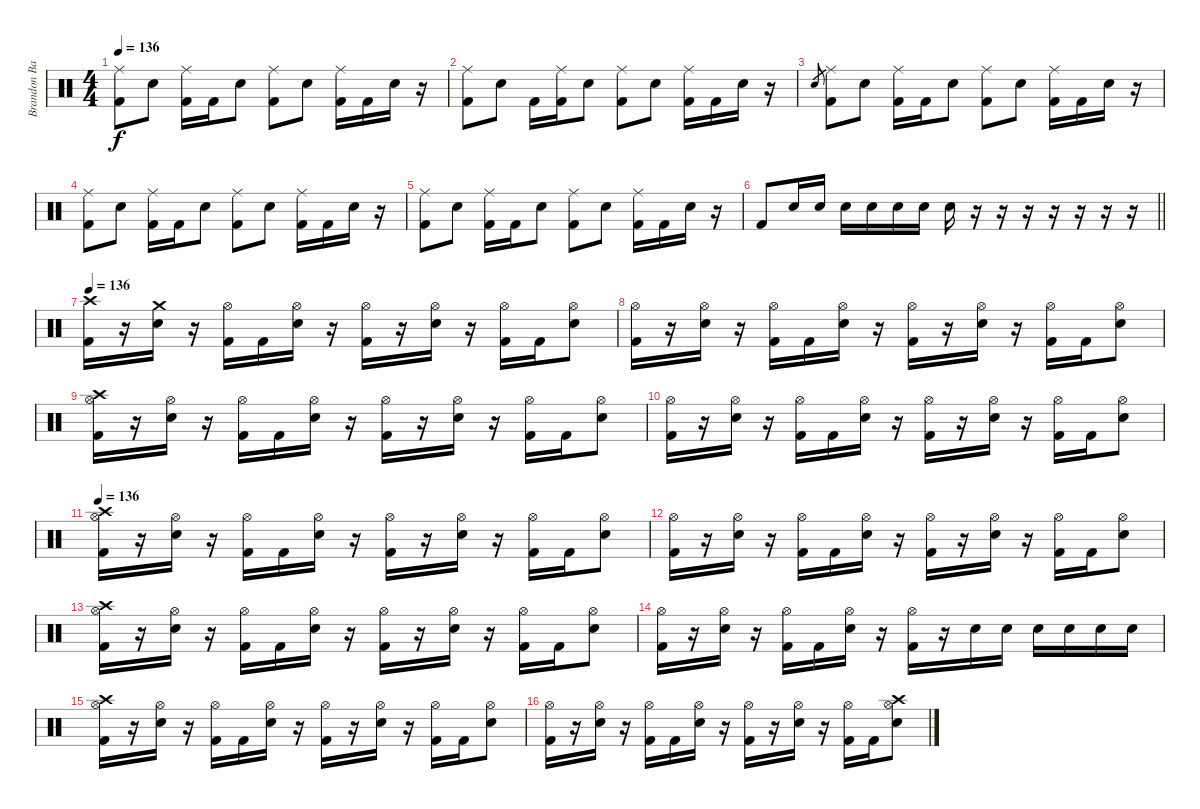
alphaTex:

\track ("Brandon Barnes (Drums)" "Brandon Ba") {instrument percussion}
\staff {score}
\articulation defaults
\ts (4 4)
\tempo 136
\clef neutral
\ks c
("Ride (middle)" "Kick (hit) 2").8{dy f} "Snare (hit) 2".8 ("Ride (middle)" "Kick (hit) 2").16 "Kick (hit) 2".16 "Snare (hit) 2".8 ("Ride (middle)" "Kick (hit) 2").8 "Snare (hit) 2".8 ("Ride (middle)" "Kick (hit) 2").16 "Kick (hit) 2".16 "Snare (hit) 2".16 r.16 |
("Ride (middle)" "Kick (hit) 2").8 "Snare (hit) 2".8 "Kick (hit) 2".16 ("Ride (middle)" "Kick (hit) 2").16 "Snare (hit) 2".8 ("Ride (middle)" "Kick (hit) 2").8 "Snare (hit) 2".8 ("Ride (middle)" "Kick (hit) 2").16 "Kick (hit) 2".16 "Snare (hit) 2".16 r.16 |
"Snare (hit) 2".8{gr} ("Ride (middle)" "Kick (hit) 2").8 "Snare (hit) 2".8 ("Ride (middle)" "Kick (hit) 2").16 "Kick (hit) 2".16 "Snare (hit) 2".8 ("Ride (middle)" "Kick (hit) 2").8 "Snare (hit) 2".8 ("Ride (middle)" "Kick (hit) 2").16 "Kick (hit) 2".16 "Snare (hit) 2".16 r.16 |
("Ride (middle)" "Kick (hit) 2").8 "Snare (hit) 2".8 ("Ride (middle)" "Kick (hit) 2").16 "Kick (hit) 2".16 "Snare (hit) 2".8 ("Ride (middle)" "Kick (hit) 2").8 "Snare (hit) 2".8 ("Ride (middle)" "Kick (hit) 2").16 "Kick (hit) 2".16 "Snare (hit) 2".16 r.16 |
("Ride (middle)" "Kick (hit) 2").8 "Snare (hit) 2".8 ("Ride (middle)" "Kick (hit) 2").16 "Kick (hit) 2".16 "Snare (hit) 2".8 ("Ride (middle)" "Kick (hit) 2").8 "Snare (hit) 2".8 ("Ride (middle)" "Kick (hit) 2").16 "Kick (hit) 2".16 "Snare (hit) 2".16 r.16 |
\barLineRight lightlight "Kick (hit) 2".8 "Snare (hit) 2".16 "Snare (hit) 2".16 "Snare (hit) 2".16 "Snare (hit) 2".16 "Snare (hit) 2".16 "Snare (hit) 2".16 "Snare (hit) 2".16
r.16 r.16 r.16 r.16 r.16 r.16 r.16 |
\tempo 136
("Kick (hit) 2" "Crash high (hit)").16 r.16 ("Snare (hit) 2" "Crash medium (hit)").16 r.16 ("Hi-Hat (open)" "Kick (hit) 2").16 "Kick (hit) 2".16 ("Hi-Hat (open)" "Snare (hit) 2").16 r.16 ("Hi-Hat (open)" "Kick (hit) 2").16 r.16 ("Hi-Hat (open)" "Snare (hit) 2").16 r.16 ("Hi-Hat (open)" "Kick (hit) 2").16 "Kick (hit) 2".16 ("Hi-Hat (open)" "Snare (hit) 2").8 |
("Hi-Hat (open)" "Kick (hit) 2").16 r.16 ("Hi-Hat (open)" "Snare (hit) 2").16 r.16 ("Hi-Hat (open)" "Kick (hit) 2").16 "Kick (hit) 2".16 ("Hi-Hat (open)" "Snare (hit) 2").16 r.16 ("Hi-Hat (open)" "Kick (hit) 2").16 r.16 ("Hi-Hat (open)" "Snare (hit) 2").16 r.16 ("Hi-Hat (open)" "Kick (hit) 2").16 "Kick (hit) 2".16 ("Hi-Hat (open)" "Snare (hit) 2").8 |
("Hi-Hat (open)" "Kick (hit) 2" "Crash high (hit)").16 r.16 ("Hi-Hat (open)" "Snare (hit) 2").16 r.16 ("Hi-Hat (open)" "Kick (hit) 2").16 "Kick (hit) 2".16 ("Hi-Hat (open)" "Snare (hit) 2").16 r.16 ("Hi-Hat (open)" "Kick (hit) 2").16 r.16 ("Hi-Hat (open)" "Snare (hit) 2").16 r.16 ("Hi-Hat (open)" "Kick (hit) 2").16 "Kick (hit) 2".16 ("Hi-Hat (open)" "Snare (hit) 2").8 |
("Hi-Hat (open)" "Kick (hit) 2").16 r.16 ("Hi-Hat (open)" "Snare (hit) 2").16 r.16 ("Hi-Hat (open)" "Kick (hit) 2").16 "Kick (hit) 2".16 ("Hi-Hat (open)" "Snare (hit) 2").16 r.16 ("Hi-Hat (open)" "Kick (hit) 2").16 r.16 ("Hi-Hat (open)" "Snare (hit) 2").16 r.16 ("Hi-Hat (open)" "Kick (hit) 2").16 "Kick (hit) 2".16 ("Hi-Hat (open)" "Snare (hit) 2").8 |
\tempo 136
("Hi-Hat (open)" "Kick (hit) 2" "Crash high (hit)").16 r.16 ("Hi-Hat (open)" "Snare (hit) 2").16 r.16 ("Hi-Hat (open)" "Kick (hit) 2").16 "Kick (hit) 2".16 ("Hi-Hat (open)" "Snare (hit) 2").16 r.16 ("Hi-Hat (open)" "Kick (hit) 2").16 r.16 ("Hi-Hat (open)" "Snare (hit) 2").16 r.16 ("Hi-Hat (open)" "Kick (hit) 2").16 "Kick (hit) 2".16 ("Hi-Hat (open)" "Snare (hit) 2").8 |
("Hi-Hat (open)" "Kick (hit) 2").16 r.16 ("Hi-Hat (open)" "Snare (hit) 2").16 r.16 ("Hi-Hat (open)" "Kick (hit) 2").16 "Kick (hit) 2".16 ("Hi-Hat (open)" "Snare (hit) 2").16 r.16 ("Hi-Hat (open)" "Kick (hit) 2").16 r.16 ("Hi-Hat (open)" "Snare (hit) 2").16 r.16 ("Hi-Hat (open)" "Kick (hit) 2").16 "Kick (hit) 2".16 ("Hi-Hat (open)" "Snare (hit) 2").8 |
("Hi-Hat (open)" "Kick (hit) 2" "Crash high (hit)").16 r.16 ("Hi-Hat (open)" "Snare (hit) 2").16 r.16 ("Hi-Hat (open)" "Kick (hit) 2").16 "Kick (hit) 2".16 ("Hi-Hat (open)" "Snare (hit) 2").16 r.16 ("Hi-Hat (open)" "Kick (hit) 2").16 r.16 ("Hi-Hat (open)" "Snare (hit) 2").16 r.16 ("Hi-Hat (open)" "Kick (hit) 2").16 "Kick (hit) 2".16 ("Hi-Hat (open)" "Snare (hit) 2").8 |
("Hi-Hat (open)" "Kick (hit) 2").16 r.16 ("Hi-Hat (open)" "Snare (hit) 2").16 r.16 ("Hi-Hat (open)" "Kick (hit) 2").16 "Kick (hit) 2".16 ("Hi-Hat (open)" "Snare (hit) 2").16 r.16 ("Hi-Hat (open)" "Kick (hit) 2").16 r.16 "Snare (hit) 2".16 "Snare (hit) 2".16 "Snare (hit) 2".16 "Snare (hit) 2".16 "Snare (hit) 2".16 "Snare (hit) 2".16 |
("Hi-Hat (open)" "Kick (hit) 2" "Crash high (hit)").16 r.16 ("Hi-Hat (open)" "Snare (hit) 2").16 r.16 ("Hi-Hat (open)" "Kick (hit) 2").16 "Kick (hit) 2".16 ("Hi-Hat (open)" "Snare (hit) 2").16 r.16 ("Hi-Hat (open)" "Kick (hit) 2").16 r.16 ("Hi-Hat (open)" "Snare (hit) 2").16 r.16 ("Hi-Hat (open)" "Kick (hit) 2").16 "Kick (hit) 2".16 ("Hi-Hat (open)" "Snare (hit) 2").8 |
("Hi-Hat (open)" "Kick (hit) 2").16 r.16 ("Hi-Hat (open)" "Snare (hit) 2").16 r.16 ("Hi-Hat (open)" "Kick (hit) 2").16 "Kick (hit) 2".16 ("Hi-Hat (open)" "Snare (hit) 2").16 r.16 ("Hi-Hat (open)" "Kick (hit) 2").16 r.16 ("Hi-Hat (open)" "Snare (hit) 2").16 r.16 ("Hi-Hat (open)" "Kick (hit) 2").16 "Kick (hit) 2".16 ("Hi-Hat (open)" "Snare (hit) 2" "Crash high (hit)").8
